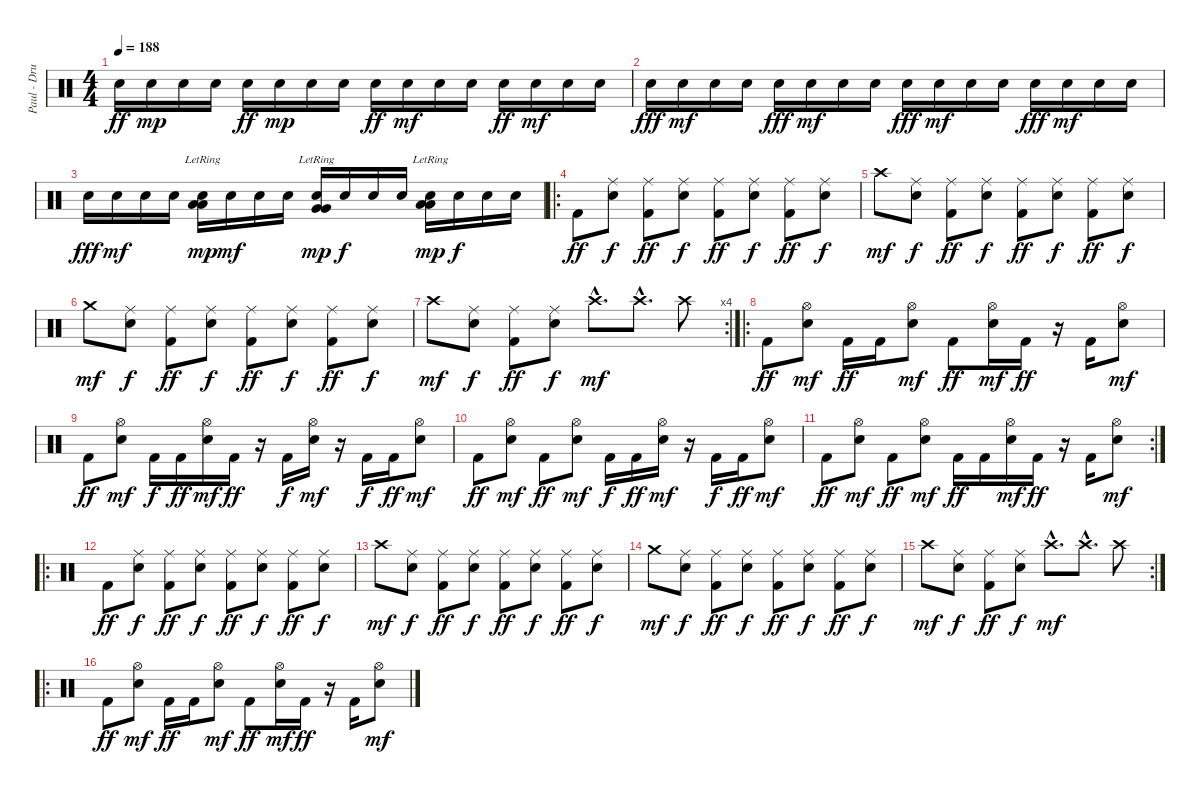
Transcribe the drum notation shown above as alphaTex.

\track ("Paul - Drums" "Paul - Dru") {instrument percussion}
\staff {score}
\articulation defaults
\ts (4 4)
\tempo 188
\clef neutral
\ks c "Electric Snare (hit)".16{dy ff} "Electric Snare (hit)".16{dy mp} "Electric Snare (hit)".16 "Electric Snare (hit)".16 "Electric Snare (hit)".16{dy ff} "Electric Snare (hit)".16{dy mp} "Electric Snare (hit)".16 "Electric Snare (hit)".16 "Electric Snare (hit)".16{dy ff} "Electric Snare (hit)".16{dy mf} "Electric Snare (hit)".16 "Electric Snare (hit)".16 "Electric Snare (hit)".16{dy ff} "Electric Snare (hit)".16{dy mf} "Electric Snare (hit)".16 "Electric Snare (hit)".16
|
"Electric Snare (hit)".16{dy fff} "Electric Snare (hit)".16{dy mf} "Electric Snare (hit)".16 "Electric Snare (hit)".16 "Electric Snare (hit)".16{dy fff} "Electric Snare (hit)".16{dy mf} "Electric Snare (hit)".16 "Electric Snare (hit)".16 "Electric Snare (hit)".16{dy fff} "Electric Snare (hit)".16{dy mf} "Electric Snare (hit)".16 "Electric Snare (hit)".16 "Electric Snare (hit)".16{dy fff} "Electric Snare (hit)".16{dy mf} "Electric Snare (hit)".16 "Electric Snare (hit)".16 |
"Electric Snare (hit)".16{dy fff} "Electric Snare (hit)".16{dy mf} "Electric Snare (hit)".16 "Electric Snare (hit)".16 ("Low Tom (hit)"{lr} "Low Tom (hit)"{lr} "Electric Snare (hit)").16{dy mp} "Electric Snare (hit)".16{dy mf} "Electric Snare (hit)".16 "Electric Snare (hit)".16 ("Very Low Tom (hit)"{lr} "Very Low Tom (hit)"{lr} "Electric Snare (hit)").16{dy mp} "Electric Snare (hit)".16{dy f} "Electric Snare (hit)".16 "Electric Snare (hit)".16 ("Low Floor Tom (hit)"{lr} "Low Floor Tom (hit)"{lr} "Electric Snare (hit)").16{dy mp} "Electric Snare (hit)".16{dy f} "Electric Snare (hit)".16 "Electric Snare (hit)".16 |
\ro "Kick (hit) 2".8{dy ff}
("Ride (middle)" "Electric Snare (hit)").8{dy f} ("Ride (middle)" "Kick (hit) 2").8{dy ff} ("Ride (middle)" "Electric Snare (hit)").8{dy f} ("Ride (middle)" "Kick (hit) 2").8{dy ff} ("Ride (middle)" "Electric Snare (hit)").8{dy f} ("Ride (middle)" "Kick (hit) 2").8{dy ff} ("Ride (middle)" "Electric Snare (hit)").8{dy f} |
"Crash high (hit)".8{dy mf} ("Ride (middle)" "Electric Snare (hit)").8{dy f} ("Ride (middle)" "Kick (hit) 2").8{dy ff} ("Ride (middle)" "Electric Snare (hit)").8{dy f} ("Ride (middle)" "Kick (hit) 2").8{dy ff} ("Ride (middle)" "Electric Snare (hit)").8{dy f} ("Ride (middle)" "Kick (hit) 2").8{dy ff} ("Ride (middle)" "Electric Snare (hit)").8{dy f} |
"Crash medium (hit)".8{dy mf} ("Ride (middle)" "Electric Snare (hit)").8{dy f} ("Ride (middle)" "Kick (hit) 2").8{dy ff} ("Ride (middle)" "Electric Snare (hit)").8{dy f} ("Ride (middle)" "Kick (hit) 2").8{dy ff} ("Ride (middle)" "Electric Snare (hit)").8{dy f} ("Ride (middle)" "Kick (hit) 2").8{dy ff} ("Ride (middle)" "Electric Snare (hit)").8{dy f} |
\rc 4 "Crash high (hit)".8{dy mf}
("Ride (middle)" "Electric Snare (hit)").8{dy f} ("Ride (middle)" "Kick (hit) 2").8{dy ff} ("Ride (middle)" "Electric Snare (hit)").8{dy f} "Crash high (hit)"{hac}.8{d dy mf} "Crash high (hit)"{hac}.8{d} "Crash high (hit)".8 |
\ro "Kick (hit) 2".8{dy ff}
("Hi-Hat (open)" "Electric Snare (hit)").8{dy mf} "Kick (hit) 2".16{dy ff} "Kick (hit) 2".16 ("Hi-Hat (open)" "Electric Snare (hit)").8{dy mf} "Kick (hit) 2".8{dy ff} ("Hi-Hat (open)" "Electric Snare (hit)").16{dy mf} "Kick (hit) 2".16{dy ff} r.16 "Kick (hit) 2".16 ("Hi-Hat (open)" "Electric Snare (hit)").8{dy mf} |
"Kick (hit) 2".8{dy ff} ("Hi-Hat (open)" "Electric Snare (hit)").8{dy mf} "Kick (hit) 2".16{dy f} "Kick (hit) 2".16{dy ff} ("Hi-Hat (open)" "Electric Snare (hit)").16{dy mf} "Kick (hit) 2".16{dy ff} r.16 "Kick (hit) 2".16{dy f} ("Hi-Hat (open)" "Electric Snare (hit)").16{dy mf} r.16 "Kick (hit) 2".16{dy f} "Kick (hit) 2".16{dy ff} ("Hi-Hat (open)" "Electric Snare (hit)").8{dy mf} |
"Kick (hit) 2".8{dy ff} ("Hi-Hat (open)" "Electric Snare (hit)").8{dy mf} "Kick (hit) 2".8{dy ff} ("Hi-Hat (open)" "Electric Snare (hit)").8{dy mf} "Kick (hit) 2".16{dy f} "Kick (hit) 2".16{dy ff} ("Hi-Hat (open)" "Electric Snare (hit)").16{dy mf} r.16 "Kick (hit) 2".16{dy f} "Kick (hit) 2".16{dy ff} ("Hi-Hat (open)" "Electric Snare (hit)").8{dy mf} |
\rc 2 "Kick (hit) 2".8{dy ff}
("Hi-Hat (open)" "Electric Snare (hit)").8{dy mf} "Kick (hit) 2".8{dy ff} ("Hi-Hat (open)" "Electric Snare (hit)").8{dy mf} "Kick (hit) 2".16{dy ff} "Kick (hit) 2".16 ("Hi-Hat (open)" "Electric Snare (hit)").16{dy mf} "Kick (hit) 2".16{dy ff} r.16 "Kick (hit) 2".16 ("Hi-Hat (open)" "Electric Snare (hit)").8{dy mf} |
\ro "Kick (hit) 2".8{dy ff}
("Ride (middle)" "Electric Snare (hit)").8{dy f} ("Ride (middle)" "Kick (hit) 2").8{dy ff} ("Ride (middle)" "Electric Snare (hit)").8{dy f} ("Ride (middle)" "Kick (hit) 2").8{dy ff} ("Ride (middle)" "Electric Snare (hit)").8{dy f} ("Ride (middle)" "Kick (hit) 2").8{dy ff} ("Ride (middle)" "Electric Snare (hit)").8{dy f} |
"Crash high (hit)".8{dy mf} ("Ride (middle)" "Electric Snare (hit)").8{dy f} ("Ride (middle)" "Kick (hit) 2").8{dy ff} ("Ride (middle)" "Electric Snare (hit)").8{dy f} ("Ride (middle)" "Kick (hit) 2").8{dy ff} ("Ride (middle)" "Electric Snare (hit)").8{dy f} ("Ride (middle)" "Kick (hit) 2").8{dy ff} ("Ride (middle)" "Electric Snare (hit)").8{dy f} |
"Crash medium (hit)".8{dy mf} ("Ride (middle)" "Electric Snare (hit)").8{dy f} ("Ride (middle)" "Kick (hit) 2").8{dy ff} ("Ride (middle)" "Electric Snare (hit)").8{dy f} ("Ride (middle)" "Kick (hit) 2").8{dy ff} ("Ride (middle)" "Electric Snare (hit)").8{dy f} ("Ride (middle)" "Kick (hit) 2").8{dy ff} ("Ride (middle)" "Electric Snare (hit)").8{dy f} |
\rc 2 "Crash high (hit)".8{dy mf}
("Ride (middle)" "Electric Snare (hit)").8{dy f} ("Ride (middle)" "Kick (hit) 2").8{dy ff} ("Ride (middle)" "Electric Snare (hit)").8{dy f} "Crash high (hit)"{hac}.8{d dy mf} "Crash high (hit)"{hac}.8{d} "Crash high (hit)".8 |
\ro "Kick (hit) 2".8{dy ff}
("Hi-Hat (open)" "Electric Snare (hit)").8{dy mf} "Kick (hit) 2".16{dy ff} "Kick (hit) 2".16 ("Hi-Hat (open)" "Electric Snare (hit)").8{dy mf} "Kick (hit) 2".8{dy ff} ("Hi-Hat (open)" "Electric Snare (hit)").16{dy mf} "Kick (hit) 2".16{dy ff} r.16 "Kick (hit) 2".16 ("Hi-Hat (open)" "Electric Snare (hit)").8{dy mf}
